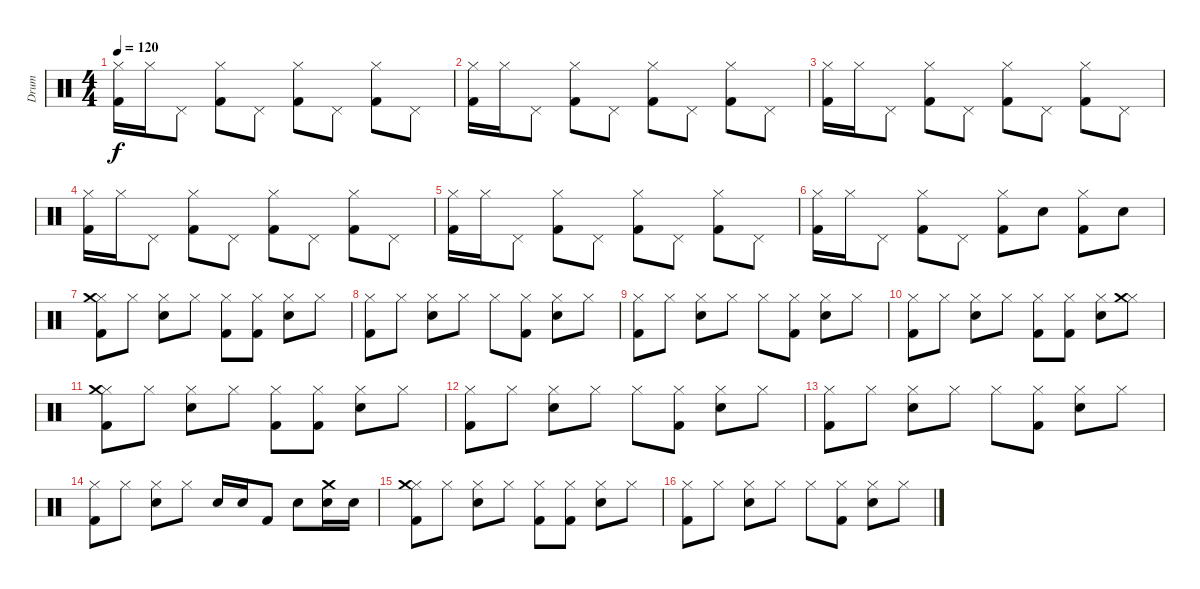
\track ("Drum" "Drum") {instrument percussion}
\staff {score}
\articulation defaults
\ts (4 4)
\tempo 120
\clef neutral
\ks c
("Hi-Hat (closed)" "Kick (hit) 2").16{dy f} "Hi-Hat (closed)".16 "Pedal Hi-Hat (hit)".8 ("Hi-Hat (closed)" "Kick (hit) 2").8 "Pedal Hi-Hat (hit)".8 ("Hi-Hat (closed)" "Kick (hit) 2").8 "Pedal Hi-Hat (hit)".8 ("Hi-Hat (closed)" "Kick (hit) 2").8 "Pedal Hi-Hat (hit)".8 |
("Hi-Hat (closed)" "Kick (hit) 2").16 "Hi-Hat (closed)".16 "Pedal Hi-Hat (hit)".8 ("Hi-Hat (closed)" "Kick (hit) 2").8 "Pedal Hi-Hat (hit)".8 ("Hi-Hat (closed)" "Kick (hit) 2").8 "Pedal Hi-Hat (hit)".8 ("Hi-Hat (closed)" "Kick (hit) 2").8 "Pedal Hi-Hat (hit)".8 |
("Hi-Hat (closed)" "Kick (hit) 2").16 "Hi-Hat (closed)".16 "Pedal Hi-Hat (hit)".8 ("Hi-Hat (closed)" "Kick (hit) 2").8 "Pedal Hi-Hat (hit)".8 ("Hi-Hat (closed)" "Kick (hit) 2").8 "Pedal Hi-Hat (hit)".8 ("Hi-Hat (closed)" "Kick (hit) 2").8 "Pedal Hi-Hat (hit)".8 |
("Hi-Hat (closed)" "Kick (hit) 2").16 "Hi-Hat (closed)".16 "Pedal Hi-Hat (hit)".8 ("Hi-Hat (closed)" "Kick (hit) 2").8 "Pedal Hi-Hat (hit)".8 ("Hi-Hat (closed)" "Kick (hit) 2").8 "Pedal Hi-Hat (hit)".8 ("Hi-Hat (closed)" "Kick (hit) 2").8 "Pedal Hi-Hat (hit)".8 |
("Hi-Hat (closed)" "Kick (hit) 2").16 "Hi-Hat (closed)".16 "Pedal Hi-Hat (hit)".8 ("Hi-Hat (closed)" "Kick (hit) 2").8 "Pedal Hi-Hat (hit)".8 ("Hi-Hat (closed)" "Kick (hit) 2").8 "Pedal Hi-Hat (hit)".8 ("Hi-Hat (closed)" "Kick (hit) 2").8 "Pedal Hi-Hat (hit)".8 |
("Hi-Hat (closed)" "Kick (hit) 2").16 "Hi-Hat (closed)".16 "Pedal Hi-Hat (hit)".8 ("Hi-Hat (closed)" "Kick (hit) 2").8 "Pedal Hi-Hat (hit)".8 ("Hi-Hat (closed)" "Kick (hit) 2").8 "Snare (hit) 2".8 ("Hi-Hat (closed)" "Kick (hit) 2").8 "Snare (hit) 2".8 |
("Hi-Hat (closed)" "Kick (hit) 2" "Crash medium (hit)").8 "Hi-Hat (closed)".8 ("Hi-Hat (closed)" "Snare (hit) 2").8 "Hi-Hat (closed)".8 ("Hi-Hat (closed)" "Kick (hit) 2").8 ("Hi-Hat (closed)" "Kick (hit) 2").8 ("Hi-Hat (closed)" "Snare (hit) 2").8 "Hi-Hat (closed)".8 |
("Hi-Hat (closed)" "Kick (hit) 2").8 "Hi-Hat (closed)".8 ("Hi-Hat (closed)" "Snare (hit) 2").8 "Hi-Hat (closed)".8 "Hi-Hat (closed)".8 ("Hi-Hat (closed)" "Kick (hit) 2").8 ("Hi-Hat (closed)" "Snare (hit) 2").8 "Hi-Hat (closed)".8 |
("Hi-Hat (closed)" "Kick (hit) 2").8 "Hi-Hat (closed)".8 ("Hi-Hat (closed)" "Snare (hit) 2").8 "Hi-Hat (closed)".8 "Hi-Hat (closed)".8 ("Hi-Hat (closed)" "Kick (hit) 2").8 ("Hi-Hat (closed)" "Snare (hit) 2").8 "Hi-Hat (closed)".8 |
("Hi-Hat (closed)" "Kick (hit) 2").8 "Hi-Hat (closed)".8 ("Hi-Hat (closed)" "Snare (hit) 2").8 "Hi-Hat (closed)".8 ("Hi-Hat (closed)" "Kick (hit) 2").8 ("Hi-Hat (closed)" "Kick (hit) 2").8 ("Hi-Hat (closed)" "Snare (hit) 2").8 ("Hi-Hat (closed)" "Crash medium (hit)").8 |
("Hi-Hat (closed)" "Kick (hit) 2" "Crash medium (hit)").8 "Hi-Hat (closed)".8 ("Hi-Hat (closed)" "Snare (hit) 2").8 "Hi-Hat (closed)".8 ("Hi-Hat (closed)" "Kick (hit) 2").8 ("Hi-Hat (closed)" "Kick (hit) 2").8 ("Hi-Hat (closed)" "Snare (hit) 2").8 "Hi-Hat (closed)".8 |
("Hi-Hat (closed)" "Kick (hit) 2").8 "Hi-Hat (closed)".8 ("Hi-Hat (closed)" "Snare (hit) 2").8 "Hi-Hat (closed)".8 "Hi-Hat (closed)".8 ("Hi-Hat (closed)" "Kick (hit) 2").8 ("Hi-Hat (closed)" "Snare (hit) 2").8 "Hi-Hat (closed)".8 |
("Hi-Hat (closed)" "Kick (hit) 2").8 "Hi-Hat (closed)".8 ("Hi-Hat (closed)" "Snare (hit) 2").8 "Hi-Hat (closed)".8 "Hi-Hat (closed)".8 ("Hi-Hat (closed)" "Kick (hit) 2").8 ("Hi-Hat (closed)" "Snare (hit) 2").8 "Hi-Hat (closed)".8 |
("Hi-Hat (closed)" "Kick (hit) 2").8 "Hi-Hat (closed)".8 ("Hi-Hat (closed)" "Snare (hit) 2").8 "Hi-Hat (closed)".8 "Snare (hit) 2".16 "Snare (hit) 2".16 "Kick (hit) 2".8 "Snare (hit) 2".8 ("Crash medium (hit)" "Snare (hit) 2").16 "Snare (hit) 2".16 |
("Hi-Hat (closed)" "Kick (hit) 2" "Crash medium (hit)").8 "Hi-Hat (closed)".8 ("Hi-Hat (closed)" "Snare (hit) 2").8 "Hi-Hat (closed)".8 ("Hi-Hat (closed)" "Kick (hit) 2").8 ("Hi-Hat (closed)" "Kick (hit) 2").8 ("Hi-Hat (closed)" "Snare (hit) 2").8 "Hi-Hat (closed)".8 |
("Hi-Hat (closed)" "Kick (hit) 2").8 "Hi-Hat (closed)".8 ("Hi-Hat (closed)" "Snare (hit) 2").8 "Hi-Hat (closed)".8 "Hi-Hat (closed)".8 ("Hi-Hat (closed)" "Kick (hit) 2").8 ("Hi-Hat (closed)" "Snare (hit) 2").8 "Hi-Hat (closed)".8
